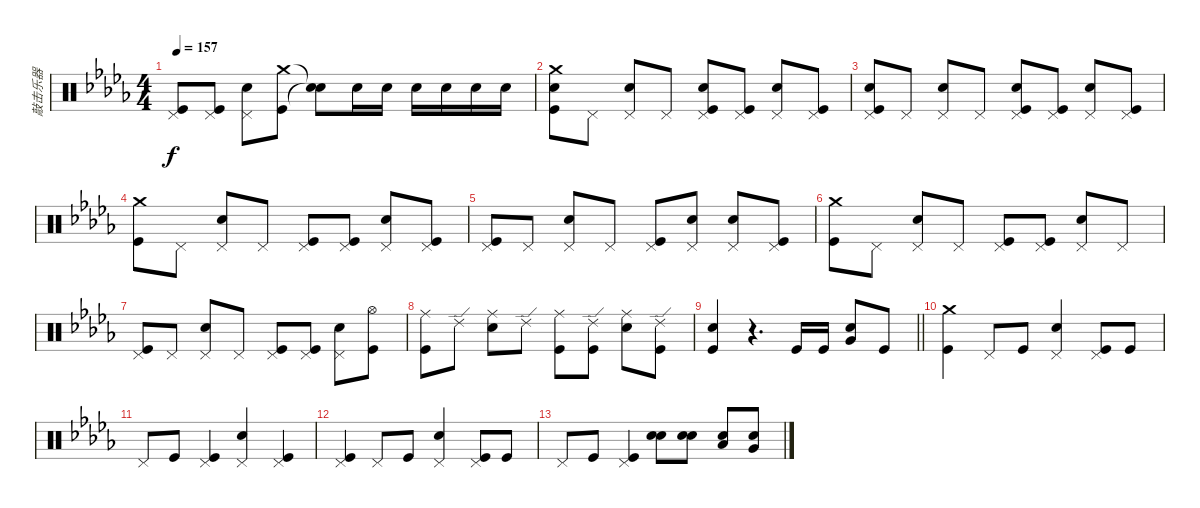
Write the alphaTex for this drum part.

\track ("敲击乐器" "敲击乐器") {instrument percussion}
\staff {score}
\articulation defaults
\ts (4 4)
\tempo 157
\clef neutral
\ks db
("Pedal Hi-Hat (hit)" "Kick (hit)").8{dy f} ("Pedal Hi-Hat (hit)" "Kick (hit)").8 ("Pedal Hi-Hat (hit)" "Snare (hit) 2").8 ("Crash medium (hit)" "Kick (hit)").8 ("Snare (hit)"{t} "Snare (hit)"{t}).8 "Snare (hit) 2".16 "Snare (hit) 2".16 "Snare (hit) 2".16 "Snare (hit) 2".16 "Snare (hit) 2".16 "Snare (hit) 2".16 |
("Crash medium (hit)" "Snare (hit) 2" "Kick (hit)").8 "Pedal Hi-Hat (hit)".8 ("Pedal Hi-Hat (hit)" "Snare (hit) 2").8 "Pedal Hi-Hat (hit)".8 ("Pedal Hi-Hat (hit)" "Snare (hit) 2" "Kick (hit)").8 ("Pedal Hi-Hat (hit)" "Kick (hit)").8 ("Pedal Hi-Hat (hit)" "Snare (hit) 2").8 ("Pedal Hi-Hat (hit)" "Kick (hit)").8 |
("Pedal Hi-Hat (hit)" "Snare (hit) 2" "Kick (hit)").8 "Pedal Hi-Hat (hit)".8 ("Pedal Hi-Hat (hit)" "Snare (hit) 2").8 "Pedal Hi-Hat (hit)".8 ("Pedal Hi-Hat (hit)" "Snare (hit) 2" "Kick (hit)").8 ("Pedal Hi-Hat (hit)" "Kick (hit)").8 ("Pedal Hi-Hat (hit)" "Snare (hit) 2").8 ("Pedal Hi-Hat (hit)" "Kick (hit)").8 |
("Crash medium (hit)" "Kick (hit)").8 "Pedal Hi-Hat (hit)".8 ("Pedal Hi-Hat (hit)" "Snare (hit) 2").8 "Pedal Hi-Hat (hit)".8 ("Pedal Hi-Hat (hit)" "Kick (hit)").8 ("Pedal Hi-Hat (hit)" "Kick (hit)").8 ("Pedal Hi-Hat (hit)" "Snare (hit) 2").8 ("Pedal Hi-Hat (hit)" "Kick (hit)").8 |
("Pedal Hi-Hat (hit)" "Kick (hit)").8 "Pedal Hi-Hat (hit)".8 ("Pedal Hi-Hat (hit)" "Snare (hit) 2").8 "Pedal Hi-Hat (hit)".8 ("Pedal Hi-Hat (hit)" "Kick (hit)").8 ("Pedal Hi-Hat (hit)" "Snare (hit) 2").8 ("Pedal Hi-Hat (hit)" "Snare (hit) 2").8 ("Pedal Hi-Hat (hit)" "Kick (hit)").8 |
("Crash medium (hit)" "Kick (hit)").8 "Pedal Hi-Hat (hit)".8 ("Pedal Hi-Hat (hit)" "Snare (hit) 2").8 "Pedal Hi-Hat (hit)".8 ("Pedal Hi-Hat (hit)" "Kick (hit)").8 ("Pedal Hi-Hat (hit)" "Kick (hit)").8 ("Pedal Hi-Hat (hit)" "Snare (hit) 2").8 "Pedal Hi-Hat (hit)".8 |
("Pedal Hi-Hat (hit)" "Kick (hit)").8 "Pedal Hi-Hat (hit)".8 ("Pedal Hi-Hat (hit)" "Snare (hit) 2").8 "Pedal Hi-Hat (hit)".8 ("Pedal Hi-Hat (hit)" "Kick (hit)").8 ("Pedal Hi-Hat (hit)" "Kick (hit)").8 ("Pedal Hi-Hat (hit)" "Snare (hit) 2").8 ("Hi-Hat (open)" "Kick (hit)").8 |
("Ride (middle)" "Kick (hit)").8 "Ride (edge) 2".8 ("Ride (middle)" "Snare (hit) 2").8 "Ride (edge) 2".8 ("Ride (middle)" "Kick (hit)").8 ("Ride (edge) 2" "Kick (hit)").8 ("Ride (middle)" "Snare (hit) 2").8 ("Ride (edge) 2" "Kick (hit)").8 |
\barLineRight lightlight
("Snare (hit) 2" "Kick (hit)").4 r.4{d} "Kick (hit)".16 "Kick (hit)".16 ("Very Low Tom (hit)" "Snare (hit) 2").8{bd 120} "Kick (hit)".8 |
("Crash medium (hit)" "Kick (hit)").4 "Pedal Hi-Hat (hit)".8 "Kick (hit)".8 ("Pedal Hi-Hat (hit)" "Snare (hit) 2").4 ("Pedal Hi-Hat (hit)" "Kick (hit)").8 "Kick (hit)".8 |
"Pedal Hi-Hat (hit)".8 "Kick (hit)".8 ("Pedal Hi-Hat (hit)" "Kick (hit)").4 ("Pedal Hi-Hat (hit)" "Snare (hit) 2").4 ("Pedal Hi-Hat (hit)" "Kick (hit)").4 |
("Pedal Hi-Hat (hit)" "Kick (hit)").4 "Pedal Hi-Hat (hit)".8 "Kick (hit)".8 ("Pedal Hi-Hat (hit)" "Snare (hit) 2").4 ("Pedal Hi-Hat (hit)" "Kick (hit)").8 "Kick (hit)".8 |
"Pedal Hi-Hat (hit)".8 "Kick (hit)".8 ("Pedal Hi-Hat (hit)" "Kick (hit)").4 ("Snare (hit) 2" "Snare (hit) 2").8{bd 120} ("Snare (hit) 2" "Snare (hit) 2").8{bd 120} ("Low Tom (hit)" "Snare (hit) 2").8{bd 120} ("Very Low Tom (hit)" "Snare (hit) 2").8{bd 120}
